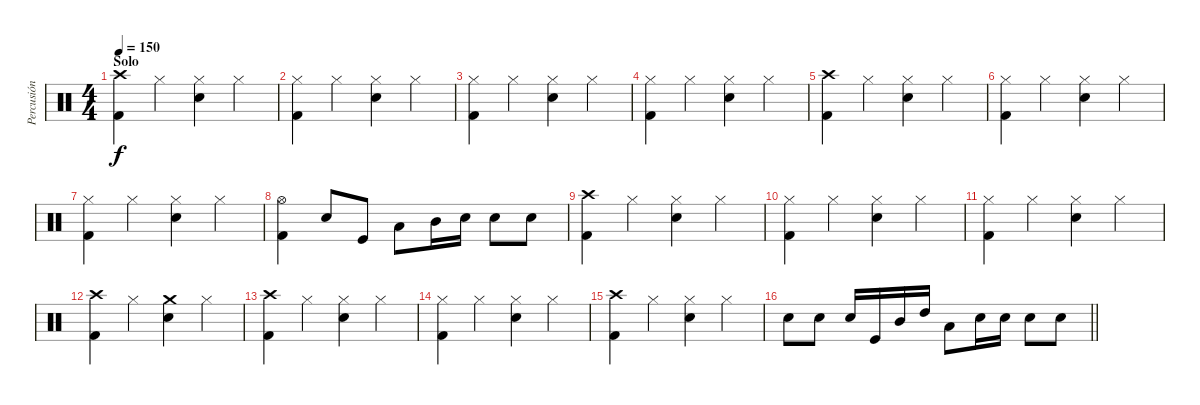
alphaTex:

\track ("Percusión" "Percusión") {instrument percussion}
\staff {score}
\articulation defaults
\ts (4 4)
\section ("" "Solo")
\tempo 150
\clef neutral
\ks c
("Crash high (hit)" "Kick (hit) 2").4{dy f} "Hi-Hat (closed)".4 ("Hi-Hat (closed)" "Electric Snare (hit)").4 "Hi-Hat (closed)".4 |
("Hi-Hat (closed)" "Kick (hit) 2").4 "Hi-Hat (closed)".4 ("Hi-Hat (closed)" "Electric Snare (hit)").4 "Hi-Hat (closed)".4 |
("Hi-Hat (closed)" "Kick (hit) 2").4 "Hi-Hat (closed)".4 ("Hi-Hat (closed)" "Electric Snare (hit)").4 "Hi-Hat (closed)".4 |
("Hi-Hat (closed)" "Kick (hit) 2").4 "Hi-Hat (closed)".4 ("Hi-Hat (closed)" "Electric Snare (hit)").4 "Hi-Hat (closed)".4 |
("Crash high (hit)" "Kick (hit) 2").4 "Hi-Hat (closed)".4 ("Hi-Hat (closed)" "Electric Snare (hit)").4 "Hi-Hat (closed)".4 |
("Hi-Hat (closed)" "Kick (hit) 2").4 "Hi-Hat (closed)".4 ("Hi-Hat (closed)" "Electric Snare (hit)").4 "Hi-Hat (closed)".4 |
("Hi-Hat (closed)" "Kick (hit) 2").4 "Hi-Hat (closed)".4 ("Hi-Hat (closed)" "Electric Snare (hit)").4 "Hi-Hat (closed)".4 |
("Hi-Hat (open)" "Kick (hit) 2").4 "Electric Snare (hit)".8 "Kick (hit)".8 "Low Tom (hit)".8 "Mid Tom (hit)".16 "Electric Snare (hit)".16 "Electric Snare (hit)".8 "Electric Snare (hit)".8 |
("Crash high (hit)" "Kick (hit) 2").4 "Hi-Hat (closed)".4 ("Hi-Hat (closed)" "Electric Snare (hit)").4 "Hi-Hat (closed)".4 |
("Hi-Hat (closed)" "Kick (hit) 2").4 "Hi-Hat (closed)".4 ("Hi-Hat (closed)" "Electric Snare (hit)").4 "Hi-Hat (closed)".4 |
("Hi-Hat (closed)" "Kick (hit) 2").4 "Hi-Hat (closed)".4 ("Hi-Hat (closed)" "Electric Snare (hit)").4 "Hi-Hat (closed)".4 |
("Crash high (hit)" "Kick (hit) 2").4 "Hi-Hat (closed)".4 ("Crash medium (hit)" "Electric Snare (hit)").4 "Hi-Hat (closed)".4 |
("Crash high (hit)" "Kick (hit) 2").4 "Hi-Hat (closed)".4 ("Hi-Hat (closed)" "Electric Snare (hit)").4 "Hi-Hat (closed)".4 |
("Hi-Hat (closed)" "Kick (hit) 2").4 "Hi-Hat (closed)".4 ("Hi-Hat (closed)" "Electric Snare (hit)").4 "Hi-Hat (closed)".4 |
("Crash high (hit)" "Kick (hit) 2").4 "Hi-Hat (closed)".4 ("Hi-Hat (closed)" "Electric Snare (hit)").4 "Hi-Hat (closed)".4 |
\barLineRight lightlight "Electric Snare (hit)".8 "Electric Snare (hit)".8 "Electric Snare (hit)".16 "Kick (hit)".16 "Mid Tom (hit)".16 "High Tom (hit)".16 "Low Tom (hit)".8 "Electric Snare (hit)".16 "Electric Snare (hit)".16 "Electric Snare (hit)".8 "Electric Snare (hit)".8
